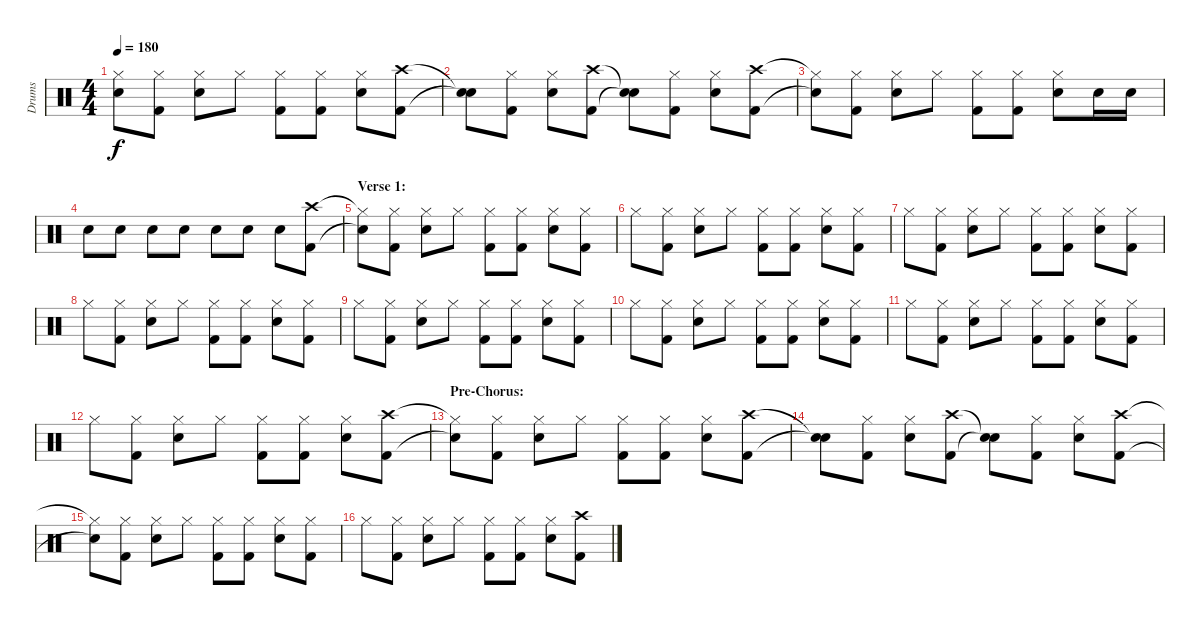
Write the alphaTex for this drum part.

\track ("Drums" "Drums") {instrument percussion}
\staff {score}
\articulation defaults
\ts (4 4)
\tempo 180
\clef neutral
\ks c
("Hi-Hat (closed)"{t} "Snare (hit)"{t}).8{dy f} ("Hi-Hat (closed)" "Kick (hit) 2").8 ("Hi-Hat (closed)" "Snare (hit) 2").8 "Hi-Hat (closed)".8 ("Hi-Hat (closed)" "Kick (hit) 2").8 ("Hi-Hat (closed)" "Kick (hit) 2").8 ("Hi-Hat (closed)" "Snare (hit) 2").8 ("Crash high (hit)" "Kick (hit) 2").8 |
("Snare (hit)"{t} "Snare (hit)"{t}).8 ("Hi-Hat (closed)" "Kick (hit) 2").8 ("Hi-Hat (closed)" "Snare (hit) 2").8 ("Crash high (hit)" "Kick (hit) 2").8 ("Snare (hit)"{t} "Snare (hit)"{t}).8 ("Hi-Hat (closed)" "Kick (hit) 2").8 ("Hi-Hat (closed)" "Snare (hit) 2").8 ("Crash high (hit)" "Kick (hit) 2").8 |
("Hi-Hat (closed)"{t} "Snare (hit)"{t}).8 ("Hi-Hat (closed)" "Kick (hit) 2").8 ("Hi-Hat (closed)" "Snare (hit) 2").8 "Hi-Hat (closed)".8 ("Hi-Hat (closed)" "Kick (hit) 2").8 ("Hi-Hat (closed)" "Kick (hit) 2").8 ("Hi-Hat (closed)" "Snare (hit) 2").8 "Snare (hit) 2".16 "Snare (hit) 2".16 |
"Snare (hit) 2".8 "Snare (hit) 2".8 "Snare (hit) 2".8 "Snare (hit) 2".8 "Snare (hit) 2".8 "Snare (hit) 2".8 "Snare (hit) 2".8 ("Crash high (hit)" "Kick (hit) 2").8 |
\section ("" "Verse 1:")
("Hi-Hat (closed)"{t} "Snare (hit)"{t}).8 ("Hi-Hat (closed)" "Kick (hit) 2").8 ("Hi-Hat (closed)" "Snare (hit) 2").8 "Hi-Hat (closed)".8 ("Hi-Hat (closed)" "Kick (hit) 2").8 ("Hi-Hat (closed)" "Kick (hit) 2").8 ("Hi-Hat (closed)" "Snare (hit) 2").8 ("Hi-Hat (closed)" "Kick (hit) 2").8 |
"Hi-Hat (closed)".8 ("Hi-Hat (closed)" "Kick (hit) 2").8 ("Hi-Hat (closed)" "Snare (hit) 2").8 "Hi-Hat (closed)".8 ("Hi-Hat (closed)" "Kick (hit) 2").8 ("Hi-Hat (closed)" "Kick (hit) 2").8 ("Hi-Hat (closed)" "Snare (hit) 2").8 ("Hi-Hat (closed)" "Kick (hit) 2").8 |
"Hi-Hat (closed)".8 ("Hi-Hat (closed)" "Kick (hit) 2").8 ("Hi-Hat (closed)" "Snare (hit) 2").8 "Hi-Hat (closed)".8 ("Hi-Hat (closed)" "Kick (hit) 2").8 ("Hi-Hat (closed)" "Kick (hit) 2").8 ("Hi-Hat (closed)" "Snare (hit) 2").8 ("Hi-Hat (closed)" "Kick (hit) 2").8 |
"Hi-Hat (closed)".8 ("Hi-Hat (closed)" "Kick (hit) 2").8 ("Hi-Hat (closed)" "Snare (hit) 2").8 "Hi-Hat (closed)".8 ("Hi-Hat (closed)" "Kick (hit) 2").8 ("Hi-Hat (closed)" "Kick (hit) 2").8 ("Hi-Hat (closed)" "Snare (hit) 2").8 ("Hi-Hat (closed)" "Kick (hit) 2").8 |
"Hi-Hat (closed)".8 ("Hi-Hat (closed)" "Kick (hit) 2").8 ("Hi-Hat (closed)" "Snare (hit) 2").8 "Hi-Hat (closed)".8 ("Hi-Hat (closed)" "Kick (hit) 2").8 ("Hi-Hat (closed)" "Kick (hit) 2").8 ("Hi-Hat (closed)" "Snare (hit) 2").8 ("Hi-Hat (closed)" "Kick (hit) 2").8 |
"Hi-Hat (closed)".8 ("Hi-Hat (closed)" "Kick (hit) 2").8 ("Hi-Hat (closed)" "Snare (hit) 2").8 "Hi-Hat (closed)".8 ("Hi-Hat (closed)" "Kick (hit) 2").8 ("Hi-Hat (closed)" "Kick (hit) 2").8 ("Hi-Hat (closed)" "Snare (hit) 2").8 ("Hi-Hat (closed)" "Kick (hit) 2").8 |
"Hi-Hat (closed)".8 ("Hi-Hat (closed)" "Kick (hit) 2").8 ("Hi-Hat (closed)" "Snare (hit) 2").8 "Hi-Hat (closed)".8 ("Hi-Hat (closed)" "Kick (hit) 2").8 ("Hi-Hat (closed)" "Kick (hit) 2").8 ("Hi-Hat (closed)" "Snare (hit) 2").8 ("Hi-Hat (closed)" "Kick (hit) 2").8 |
"Hi-Hat (closed)".8 ("Hi-Hat (closed)" "Kick (hit) 2").8 ("Hi-Hat (closed)" "Snare (hit) 2").8 "Hi-Hat (closed)".8 ("Hi-Hat (closed)" "Kick (hit) 2").8 ("Hi-Hat (closed)" "Kick (hit) 2").8 ("Hi-Hat (closed)" "Snare (hit) 2").8 ("Crash high (hit)" "Kick (hit) 2").8 |
\section ("" "Pre-Chorus:")
("Hi-Hat (closed)"{t} "Snare (hit)"{t}).8 ("Hi-Hat (closed)" "Kick (hit) 2").8 ("Hi-Hat (closed)" "Snare (hit) 2").8 "Hi-Hat (closed)".8 ("Hi-Hat (closed)" "Kick (hit) 2").8 ("Hi-Hat (closed)" "Kick (hit) 2").8 ("Hi-Hat (closed)" "Snare (hit) 2").8 ("Crash high (hit)" "Kick (hit) 2").8 |
("Snare (hit)"{t} "Snare (hit)"{t}).8 ("Hi-Hat (closed)" "Kick (hit) 2").8 ("Hi-Hat (closed)" "Snare (hit) 2").8 ("Crash high (hit)" "Kick (hit) 2").8 ("Snare (hit)"{t} "Snare (hit)"{t}).8 ("Hi-Hat (closed)" "Kick (hit) 2").8 ("Hi-Hat (closed)" "Snare (hit) 2").8 ("Crash high (hit)" "Kick (hit) 2").8 |
("Hi-Hat (closed)"{t} "Snare (hit)"{t}).8 ("Hi-Hat (closed)" "Kick (hit) 2").8 ("Hi-Hat (closed)" "Snare (hit) 2").8 "Hi-Hat (closed)".8 ("Hi-Hat (closed)" "Kick (hit) 2").8 ("Hi-Hat (closed)" "Kick (hit) 2").8 ("Hi-Hat (closed)" "Snare (hit) 2").8 ("Hi-Hat (closed)" "Kick (hit) 2").8 |
"Hi-Hat (closed)".8 ("Hi-Hat (closed)" "Kick (hit) 2").8 ("Hi-Hat (closed)" "Snare (hit) 2").8 "Hi-Hat (closed)".8 ("Hi-Hat (closed)" "Kick (hit) 2").8 ("Hi-Hat (closed)" "Kick (hit) 2").8 ("Hi-Hat (closed)" "Snare (hit) 2").8 ("Crash high (hit)" "Kick (hit) 2").8
